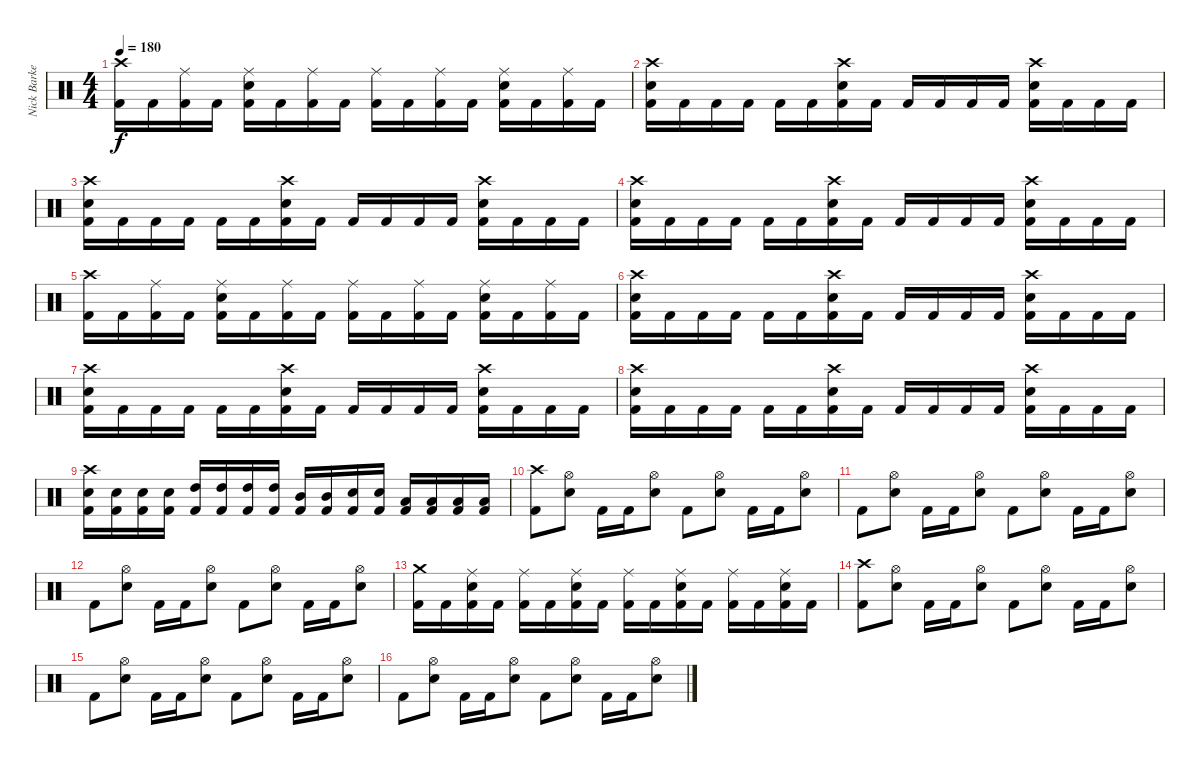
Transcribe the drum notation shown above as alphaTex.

\track ("Nick Barker" "Nick Barke") {instrument percussion}
\staff {score}
\articulation defaults
\ts (4 4)
\tempo 180
\clef neutral
\ks c
("Crash high (hit)" "Kick (hit) 2").16{dy f} "Kick (hit) 2".16 ("Ride (middle)" "Kick (hit) 2").16 "Kick (hit) 2".16 ("Ride (middle)" "Electric Snare (hit)" "Kick (hit) 2").16 "Kick (hit) 2".16 ("Ride (middle)" "Kick (hit) 2").16 "Kick (hit) 2".16 ("Ride (middle)" "Kick (hit) 2").16 "Kick (hit) 2".16 ("Ride (middle)" "Kick (hit) 2").16 "Kick (hit) 2".16 ("Ride (middle)" "Electric Snare (hit)" "Kick (hit) 2").16 "Kick (hit) 2".16 ("Ride (middle)" "Kick (hit) 2").16 "Kick (hit) 2".16 |
("Crash high (hit)" "Electric Snare (hit)" "Kick (hit) 2").16 "Kick (hit) 2".16 "Kick (hit) 2".16 "Kick (hit) 2".16 "Kick (hit) 2".16 "Kick (hit) 2".16 ("Crash high (hit)" "Electric Snare (hit)" "Kick (hit) 2").16 "Kick (hit) 2".16 "Kick (hit) 2".16 "Kick (hit) 2".16 "Kick (hit) 2".16 "Kick (hit) 2".16 ("Crash high (hit)" "Electric Snare (hit)" "Kick (hit) 2").16 "Kick (hit) 2".16 "Kick (hit) 2".16 "Kick (hit) 2".16 |
("Crash high (hit)" "Electric Snare (hit)" "Kick (hit) 2").16 "Kick (hit) 2".16 "Kick (hit) 2".16 "Kick (hit) 2".16 "Kick (hit) 2".16 "Kick (hit) 2".16 ("Crash high (hit)" "Electric Snare (hit)" "Kick (hit) 2").16 "Kick (hit) 2".16 "Kick (hit) 2".16 "Kick (hit) 2".16 "Kick (hit) 2".16 "Kick (hit) 2".16 ("Crash high (hit)" "Electric Snare (hit)" "Kick (hit) 2").16 "Kick (hit) 2".16 "Kick (hit) 2".16 "Kick (hit) 2".16 |
("Crash high (hit)" "Electric Snare (hit)" "Kick (hit) 2").16 "Kick (hit) 2".16 "Kick (hit) 2".16 "Kick (hit) 2".16 "Kick (hit) 2".16 "Kick (hit) 2".16 ("Crash high (hit)" "Electric Snare (hit)" "Kick (hit) 2").16 "Kick (hit) 2".16 "Kick (hit) 2".16 "Kick (hit) 2".16 "Kick (hit) 2".16 "Kick (hit) 2".16 ("Crash high (hit)" "Electric Snare (hit)" "Kick (hit) 2").16 "Kick (hit) 2".16 "Kick (hit) 2".16 "Kick (hit) 2".16 |
("Crash high (hit)" "Kick (hit) 2").16 "Kick (hit) 2".16 ("Ride (middle)" "Kick (hit) 2").16 "Kick (hit) 2".16 ("Ride (middle)" "Electric Snare (hit)" "Kick (hit) 2").16 "Kick (hit) 2".16 ("Ride (middle)" "Kick (hit) 2").16 "Kick (hit) 2".16 ("Ride (middle)" "Kick (hit) 2").16 "Kick (hit) 2".16 ("Ride (middle)" "Kick (hit) 2").16 "Kick (hit) 2".16 ("Ride (middle)" "Electric Snare (hit)" "Kick (hit) 2").16 "Kick (hit) 2".16 ("Ride (middle)" "Kick (hit) 2").16 "Kick (hit) 2".16 |
("Crash high (hit)" "Electric Snare (hit)" "Kick (hit) 2").16 "Kick (hit) 2".16 "Kick (hit) 2".16 "Kick (hit) 2".16 "Kick (hit) 2".16 "Kick (hit) 2".16 ("Crash high (hit)" "Electric Snare (hit)" "Kick (hit) 2").16 "Kick (hit) 2".16 "Kick (hit) 2".16 "Kick (hit) 2".16 "Kick (hit) 2".16 "Kick (hit) 2".16 ("Crash high (hit)" "Electric Snare (hit)" "Kick (hit) 2").16 "Kick (hit) 2".16 "Kick (hit) 2".16 "Kick (hit) 2".16 |
("Crash high (hit)" "Electric Snare (hit)" "Kick (hit) 2").16 "Kick (hit) 2".16 "Kick (hit) 2".16 "Kick (hit) 2".16 "Kick (hit) 2".16 "Kick (hit) 2".16 ("Crash high (hit)" "Electric Snare (hit)" "Kick (hit) 2").16 "Kick (hit) 2".16 "Kick (hit) 2".16 "Kick (hit) 2".16 "Kick (hit) 2".16 "Kick (hit) 2".16 ("Crash high (hit)" "Electric Snare (hit)" "Kick (hit) 2").16 "Kick (hit) 2".16 "Kick (hit) 2".16 "Kick (hit) 2".16 |
("Crash high (hit)" "Electric Snare (hit)" "Kick (hit) 2").16 "Kick (hit) 2".16 "Kick (hit) 2".16 "Kick (hit) 2".16 "Kick (hit) 2".16 "Kick (hit) 2".16 ("Crash high (hit)" "Electric Snare (hit)" "Kick (hit) 2").16 "Kick (hit) 2".16 "Kick (hit) 2".16 "Kick (hit) 2".16 "Kick (hit) 2".16 "Kick (hit) 2".16 ("Crash high (hit)" "Electric Snare (hit)" "Kick (hit) 2").16 "Kick (hit) 2".16 "Kick (hit) 2".16 "Kick (hit) 2".16 |
("Crash high (hit)" "Electric Snare (hit)" "Kick (hit) 2").16 ("Electric Snare (hit)" "Kick (hit) 2").16 ("Electric Snare (hit)" "Kick (hit) 2").16 ("Electric Snare (hit)" "Kick (hit) 2").16 ("High Tom (hit)" "Kick (hit) 2").16 ("High Tom (hit)" "Kick (hit) 2").16 ("High Tom (hit)" "Kick (hit) 2").16 ("High Tom (hit)" "Kick (hit) 2").16 ("Mid Tom (hit)" "Kick (hit) 2").16 ("Mid Tom (hit)" "Kick (hit) 2").16 ("Electric Snare (hit)" "Kick (hit) 2").16 ("Electric Snare (hit)" "Kick (hit) 2").16 ("Low Tom (hit)" "Kick (hit) 2").16 ("Low Tom (hit)" "Kick (hit) 2").16 ("Low Tom (hit)" "Kick (hit) 2").16 ("Low Tom (hit)" "Kick (hit) 2").16 |
\section ("" "")
("Crash high (hit)" "Kick (hit) 2").8 ("Hi-Hat (open)" "Electric Snare (hit)").8 "Kick (hit) 2".16 "Kick (hit) 2".16 ("Hi-Hat (open)" "Electric Snare (hit)").8 "Kick (hit) 2".8 ("Hi-Hat (open)" "Electric Snare (hit)").8 "Kick (hit) 2".16 "Kick (hit) 2".16 ("Hi-Hat (open)" "Electric Snare (hit)").8 |
"Kick (hit) 2".8 ("Hi-Hat (open)" "Electric Snare (hit)").8 "Kick (hit) 2".16 "Kick (hit) 2".16 ("Hi-Hat (open)" "Electric Snare (hit)").8 "Kick (hit) 2".8 ("Hi-Hat (open)" "Electric Snare (hit)").8 "Kick (hit) 2".16 "Kick (hit) 2".16 ("Hi-Hat (open)" "Electric Snare (hit)").8 |
"Kick (hit) 2".8 ("Hi-Hat (open)" "Electric Snare (hit)").8 "Kick (hit) 2".16 "Kick (hit) 2".16 ("Hi-Hat (open)" "Electric Snare (hit)").8 "Kick (hit) 2".8 ("Hi-Hat (open)" "Electric Snare (hit)").8 "Kick (hit) 2".16 "Kick (hit) 2".16 ("Hi-Hat (open)" "Electric Snare (hit)").8 |
("Crash medium (hit)" "Kick (hit) 2").16 "Kick (hit) 2".16 ("Ride (middle)" "Electric Snare (hit)" "Kick (hit) 2").16 "Kick (hit) 2".16 ("Ride (middle)" "Kick (hit) 2").16 "Kick (hit) 2".16 ("Ride (middle)" "Electric Snare (hit)" "Kick (hit) 2").16 "Kick (hit) 2".16 ("Ride (middle)" "Kick (hit) 2").16 "Kick (hit) 2".16 ("Ride (middle)" "Electric Snare (hit)" "Kick (hit) 2").16 "Kick (hit) 2".16 ("Ride (middle)" "Kick (hit) 2").16 "Kick (hit) 2".16 ("Ride (middle)" "Electric Snare (hit)" "Kick (hit) 2").16 "Kick (hit) 2".16 |
("Crash high (hit)" "Kick (hit) 2").8 ("Hi-Hat (open)" "Electric Snare (hit)").8 "Kick (hit) 2".16 "Kick (hit) 2".16 ("Hi-Hat (open)" "Electric Snare (hit)").8 "Kick (hit) 2".8 ("Hi-Hat (open)" "Electric Snare (hit)").8 "Kick (hit) 2".16 "Kick (hit) 2".16 ("Hi-Hat (open)" "Electric Snare (hit)").8 |
"Kick (hit) 2".8 ("Hi-Hat (open)" "Electric Snare (hit)").8 "Kick (hit) 2".16 "Kick (hit) 2".16 ("Hi-Hat (open)" "Electric Snare (hit)").8 "Kick (hit) 2".8 ("Hi-Hat (open)" "Electric Snare (hit)").8 "Kick (hit) 2".16 "Kick (hit) 2".16 ("Hi-Hat (open)" "Electric Snare (hit)").8 |
"Kick (hit) 2".8 ("Hi-Hat (open)" "Electric Snare (hit)").8 "Kick (hit) 2".16 "Kick (hit) 2".16 ("Hi-Hat (open)" "Electric Snare (hit)").8 "Kick (hit) 2".8 ("Hi-Hat (open)" "Electric Snare (hit)").8 "Kick (hit) 2".16 "Kick (hit) 2".16 ("Hi-Hat (open)" "Electric Snare (hit)").8
